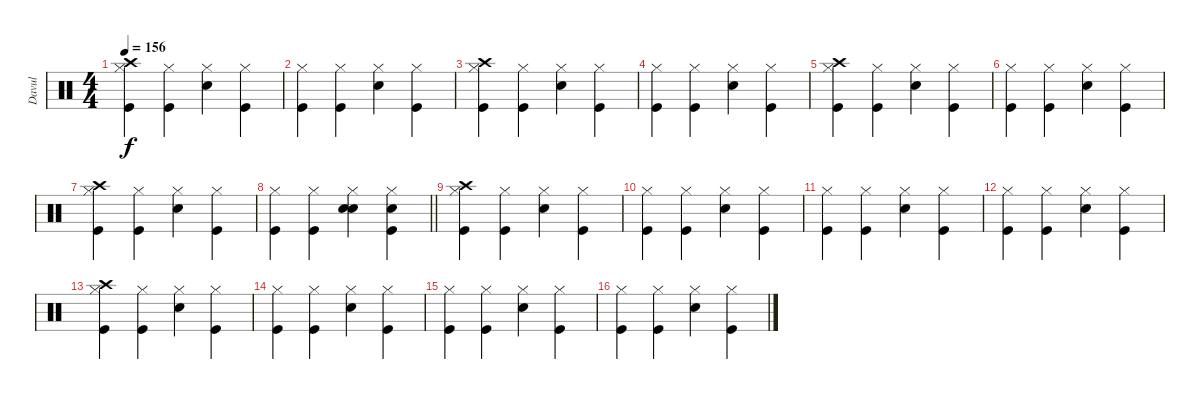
\track ("Davul" "Davul") {instrument percussion}
\staff {score}
\articulation defaults
\ts (4 4)
\tempo 156
\clef neutral
\ks c
("Hi-Hat (closed)" "Kick (hit)" "Crash high (hit)").4{dy f} ("Hi-Hat (closed)" "Kick (hit)").4 ("Hi-Hat (closed)" "Snare (hit) 2").4 ("Hi-Hat (closed)" "Kick (hit)").4 |
("Hi-Hat (closed)" "Kick (hit)").4 ("Hi-Hat (closed)" "Kick (hit)").4 ("Hi-Hat (closed)" "Snare (hit) 2").4 ("Hi-Hat (closed)" "Kick (hit)").4 |
("Hi-Hat (closed)" "Kick (hit)" "Crash high (hit)").4 ("Hi-Hat (closed)" "Kick (hit)").4 ("Hi-Hat (closed)" "Snare (hit) 2").4 ("Hi-Hat (closed)" "Kick (hit)").4 |
("Hi-Hat (closed)" "Kick (hit)").4 ("Hi-Hat (closed)" "Kick (hit)").4 ("Hi-Hat (closed)" "Snare (hit) 2").4 ("Hi-Hat (closed)" "Kick (hit)").4 |
("Hi-Hat (closed)" "Kick (hit)" "Crash high (hit)").4 ("Hi-Hat (closed)" "Kick (hit)").4 ("Hi-Hat (closed)" "Snare (hit) 2").4 ("Hi-Hat (closed)" "Kick (hit)").4 |
("Hi-Hat (closed)" "Kick (hit)").4 ("Hi-Hat (closed)" "Kick (hit)").4 ("Hi-Hat (closed)" "Snare (hit) 2").4 ("Hi-Hat (closed)" "Kick (hit)").4 |
("Hi-Hat (closed)" "Kick (hit)" "Crash high (hit)").4 ("Hi-Hat (closed)" "Kick (hit)").4 ("Hi-Hat (closed)" "Snare (hit) 2").4 ("Hi-Hat (closed)" "Kick (hit)").4 |
\barLineRight lightlight
("Hi-Hat (closed)" "Kick (hit)").4 ("Hi-Hat (closed)" "Kick (hit)").4 ("Hi-Hat (closed)" "Snare (hit) 2" "Snare (hit) 2").4 ("Hi-Hat (closed)" "Kick (hit)" "Snare (hit) 2").4 |
("Hi-Hat (closed)" "Kick (hit)" "Crash high (hit)").4 ("Hi-Hat (closed)" "Kick (hit)").4 ("Hi-Hat (closed)" "Snare (hit) 2").4 ("Hi-Hat (closed)" "Kick (hit)").4 |
("Hi-Hat (closed)" "Kick (hit)").4 ("Hi-Hat (closed)" "Kick (hit)").4 ("Hi-Hat (closed)" "Snare (hit) 2").4 ("Hi-Hat (closed)" "Kick (hit)").4 |
("Hi-Hat (closed)" "Kick (hit)").4 ("Hi-Hat (closed)" "Kick (hit)").4 ("Hi-Hat (closed)" "Snare (hit) 2").4 ("Hi-Hat (closed)" "Kick (hit)").4 |
("Hi-Hat (closed)" "Kick (hit)").4 ("Hi-Hat (closed)" "Kick (hit)").4 ("Hi-Hat (closed)" "Snare (hit) 2").4 ("Hi-Hat (closed)" "Kick (hit)").4 |
("Hi-Hat (closed)" "Kick (hit)" "Crash high (hit)").4 ("Hi-Hat (closed)" "Kick (hit)").4 ("Hi-Hat (closed)" "Snare (hit) 2").4 ("Hi-Hat (closed)" "Kick (hit)").4 |
("Hi-Hat (closed)" "Kick (hit)").4 ("Hi-Hat (closed)" "Kick (hit)").4 ("Hi-Hat (closed)" "Snare (hit) 2").4 ("Hi-Hat (closed)" "Kick (hit)").4 |
("Hi-Hat (closed)" "Kick (hit)").4 ("Hi-Hat (closed)" "Kick (hit)").4 ("Hi-Hat (closed)" "Snare (hit) 2").4 ("Hi-Hat (closed)" "Kick (hit)").4 |
("Hi-Hat (closed)" "Kick (hit)").4 ("Hi-Hat (closed)" "Kick (hit)").4 ("Hi-Hat (closed)" "Snare (hit) 2").4 ("Hi-Hat (closed)" "Kick (hit)").4
